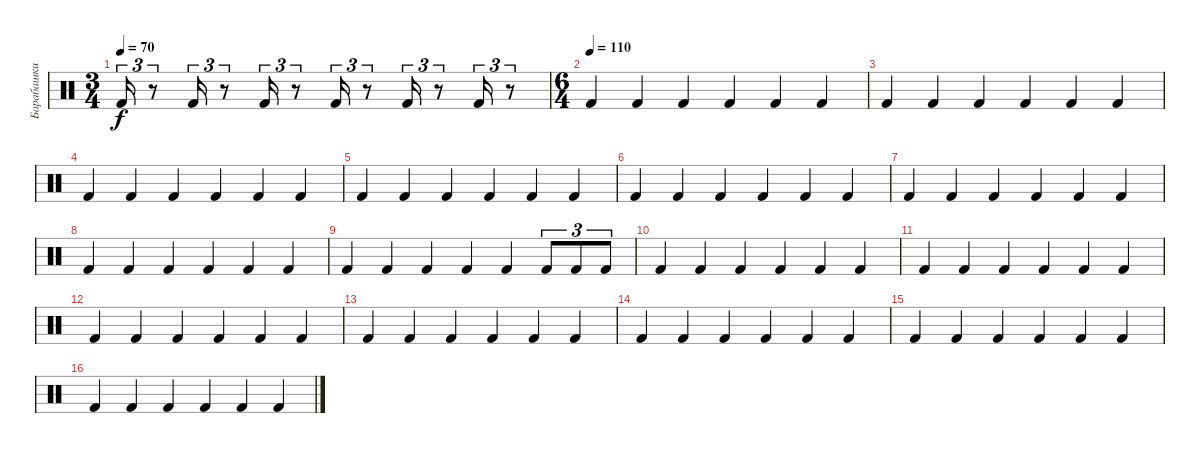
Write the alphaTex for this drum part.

\track ("Барабашки low" "Барабашки ") {instrument percussion}
\staff {score}
\articulation defaults
\ts (3 4)
\tempo 70
\clef neutral
\ks c "Kick (hit) 2".16{tu (3 2) dy f}
r.8{tu (3 2)} "Kick (hit) 2".16{tu (3 2)} r.8{tu (3 2)} "Kick (hit) 2".16{tu (3 2)} r.8{tu (3 2)} "Kick (hit) 2".16{tu (3 2)} r.8{tu (3 2)} "Kick (hit) 2".16{tu (3 2)} r.8{tu (3 2)} "Kick (hit) 2".16{tu (3 2)} r.8{tu (3 2)} |
\ts (6 4)
\tempo (110)
"Kick (hit) 2".4 "Kick (hit) 2".4 "Kick (hit) 2".4 "Kick (hit) 2".4 "Kick (hit) 2".4 "Kick (hit) 2".4 |
"Kick (hit) 2".4 "Kick (hit) 2".4 "Kick (hit) 2".4 "Kick (hit) 2".4 "Kick (hit) 2".4 "Kick (hit) 2".4 |
"Kick (hit) 2".4 "Kick (hit) 2".4 "Kick (hit) 2".4 "Kick (hit) 2".4 "Kick (hit) 2".4 "Kick (hit) 2".4 |
"Kick (hit) 2".4 "Kick (hit) 2".4 "Kick (hit) 2".4 "Kick (hit) 2".4 "Kick (hit) 2".4 "Kick (hit) 2".4 |
"Kick (hit) 2".4 "Kick (hit) 2".4 "Kick (hit) 2".4 "Kick (hit) 2".4 "Kick (hit) 2".4 "Kick (hit) 2".4 |
"Kick (hit) 2".4 "Kick (hit) 2".4 "Kick (hit) 2".4 "Kick (hit) 2".4 "Kick (hit) 2".4 "Kick (hit) 2".4 |
"Kick (hit) 2".4 "Kick (hit) 2".4 "Kick (hit) 2".4 "Kick (hit) 2".4 "Kick (hit) 2".4 "Kick (hit) 2".4 |
"Kick (hit) 2".4 "Kick (hit) 2".4 "Kick (hit) 2".4 "Kick (hit) 2".4 "Kick (hit) 2".4 "Kick (hit) 2".8{tu (3 2)} "Kick (hit) 2".8{tu (3 2)} "Kick (hit) 2".8{tu (3 2)} |
"Kick (hit) 2".4 "Kick (hit) 2".4 "Kick (hit) 2".4 "Kick (hit) 2".4 "Kick (hit) 2".4 "Kick (hit) 2".4 |
"Kick (hit) 2".4 "Kick (hit) 2".4 "Kick (hit) 2".4 "Kick (hit) 2".4 "Kick (hit) 2".4 "Kick (hit) 2".4 |
"Kick (hit) 2".4 "Kick (hit) 2".4 "Kick (hit) 2".4 "Kick (hit) 2".4 "Kick (hit) 2".4 "Kick (hit) 2".4 |
"Kick (hit) 2".4 "Kick (hit) 2".4 "Kick (hit) 2".4 "Kick (hit) 2".4 "Kick (hit) 2".4 "Kick (hit) 2".4 |
"Kick (hit) 2".4 "Kick (hit) 2".4 "Kick (hit) 2".4 "Kick (hit) 2".4 "Kick (hit) 2".4 "Kick (hit) 2".4 |
"Kick (hit) 2".4 "Kick (hit) 2".4 "Kick (hit) 2".4 "Kick (hit) 2".4 "Kick (hit) 2".4 "Kick (hit) 2".4 |
"Kick (hit) 2".4 "Kick (hit) 2".4 "Kick (hit) 2".4 "Kick (hit) 2".4 "Kick (hit) 2".4 "Kick (hit) 2".4
